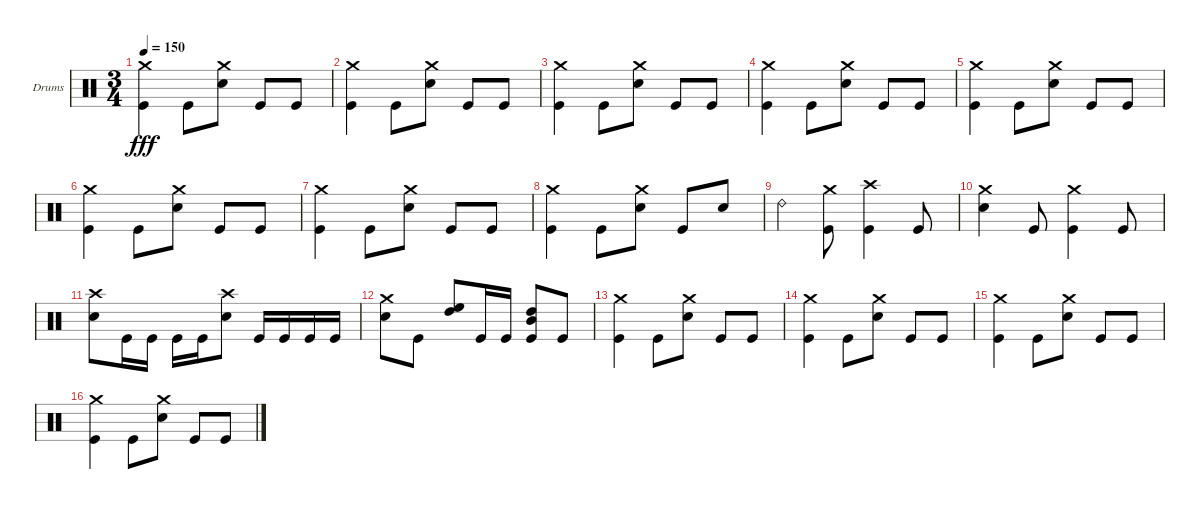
\defaultSystemsLayout 4
\bracketExtendMode groupsimilarinstruments
\firstSystemTrackNameOrientation horizontal
\otherSystemsTrackNameOrientation horizontal
\track ("Chris Adler" "Drums") {instrument percussion}
\staff {score}
\articulation defaults
\ts (3 4)
\tempo 150
\clef neutral
\ks c
("Kick (hit)" "Crash medium (hit)").4{dy fff} "Kick (hit)".8 ("Snare (hit) 2" "Crash medium (hit)").8 "Kick (hit)".8 "Kick (hit)".8 |
("Kick (hit)" "Crash medium (hit)").4 "Kick (hit)".8 ("Snare (hit) 2" "Crash medium (hit)").8 "Kick (hit)".8 "Kick (hit)".8 |
("Kick (hit)" "Crash medium (hit)").4 "Kick (hit)".8 ("Snare (hit) 2" "Crash medium (hit)").8 "Kick (hit)".8 "Kick (hit)".8 |
("Kick (hit)" "Crash medium (hit)").4 "Kick (hit)".8 ("Snare (hit) 2" "Crash medium (hit)").8 "Kick (hit)".8 "Kick (hit)".8 |
("Kick (hit)" "Crash medium (hit)").4 "Kick (hit)".8 ("Snare (hit) 2" "Crash medium (hit)").8 "Kick (hit)".8 "Kick (hit)".8 |
("Kick (hit)" "Crash medium (hit)").4 "Kick (hit)".8 ("Snare (hit) 2" "Crash medium (hit)").8 "Kick (hit)".8 "Kick (hit)".8 |
("Kick (hit)" "Crash medium (hit)").4 "Kick (hit)".8 ("Snare (hit) 2" "Crash medium (hit)").8 "Kick (hit)".8 "Kick (hit)".8 |
("Kick (hit)" "Crash medium (hit)").4 "Kick (hit)".8 ("Snare (hit) 2" "Crash medium (hit)").8 "Kick (hit)".8 "Snare (hit) 2".8 |
"Ride (bell) 2".4 ("Kick (hit)" "Crash medium (hit)").8 ("Kick (hit)" "Crash high (hit)").4 "Kick (hit)".8 |
("Snare (hit) 2" "Crash medium (hit)").4 "Kick (hit)".8 ("Kick (hit)" "Crash medium (hit)").4 "Kick (hit)".8 |
("Snare (hit) 2" "Crash high (hit)").8 "Kick (hit)".16 "Kick (hit)".16 "Kick (hit)".16 "Kick (hit)".16 ("Snare (hit) 2" "Crash high (hit)").8 "Kick (hit)".16 "Kick (hit)".16 "Kick (hit)".16 "Kick (hit)".16 |
("Snare (hit) 2" "Crash medium (hit)").8 "Kick (hit)".8 ("High Floor Tom (hit)" "High Tom (hit)").8 "Kick (hit)".16 "Kick (hit)".16 ("Kick (hit)" "Mid Tom (hit)" "High Tom (hit)").8 "Kick (hit)".8 |
("Kick (hit)" "Crash medium (hit)").4 "Kick (hit)".8 ("Snare (hit) 2" "Crash medium (hit)").8 "Kick (hit)".8 "Kick (hit)".8 |
("Kick (hit)" "Crash medium (hit)").4 "Kick (hit)".8 ("Snare (hit) 2" "Crash medium (hit)").8 "Kick (hit)".8 "Kick (hit)".8 |
("Kick (hit)" "Crash medium (hit)").4 "Kick (hit)".8 ("Snare (hit) 2" "Crash medium (hit)").8 "Kick (hit)".8 "Kick (hit)".8 |
("Kick (hit)" "Crash medium (hit)").4 "Kick (hit)".8 ("Snare (hit) 2" "Crash medium (hit)").8 "Kick (hit)".8 "Kick (hit)".8
